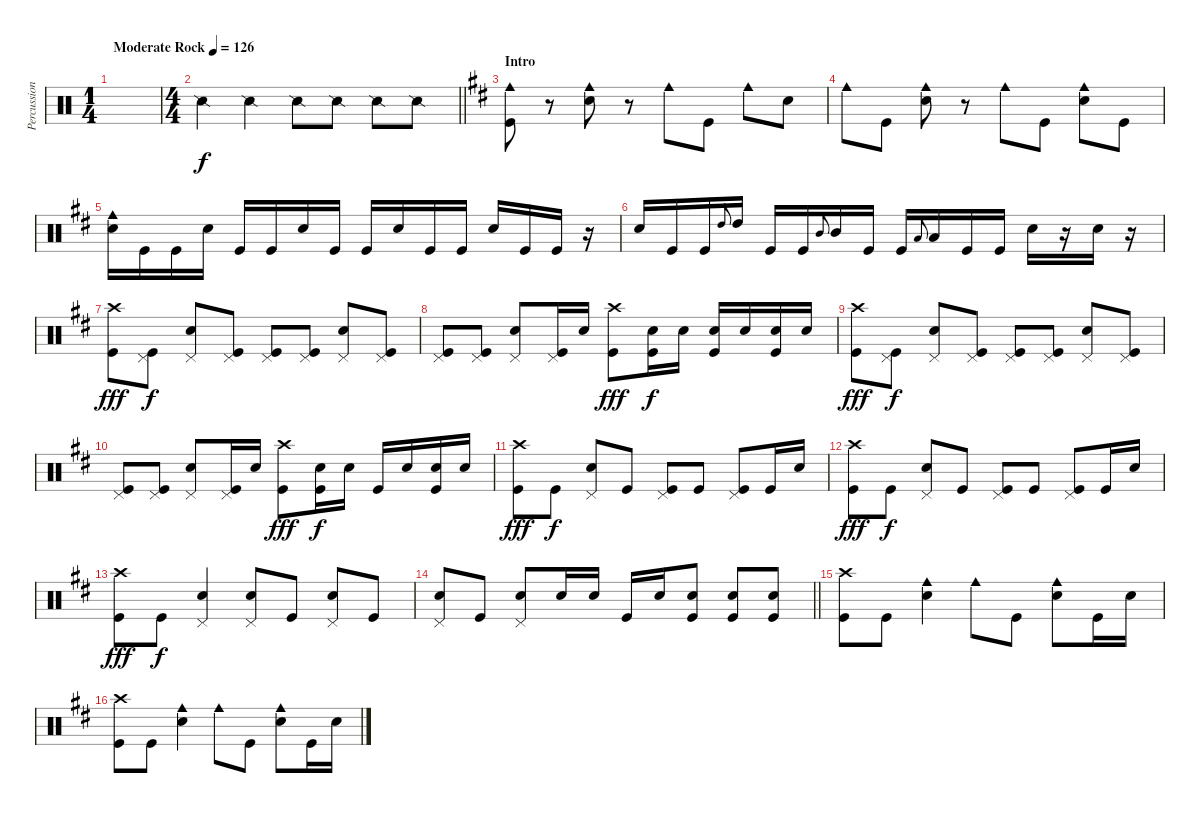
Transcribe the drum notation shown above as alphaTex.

\track ("Percussion" "Percussion") {instrument percussion}
\staff {score}
\articulation defaults
\ts (1 4)
\tempo (126 "Moderate Rock")
\clef neutral
\ks c
|
\ts (4 4)
\barLineRight lightlight "Snare (side stick) 2".4 "Snare (side stick) 2".4 "Snare (side stick) 2".8 "Snare (side stick) 2".8 "Snare (side stick) 2".8 "Snare (side stick) 2".8
|
\section ("" "Intro")
\ks d
("Cowbell medium (hit)" "Kick (hit)").8 r.8 ("Cowbell medium (hit)" "Snare (hit) 2").8 r.8 "Cowbell medium (hit)".8 "Kick (hit)".8 "Cowbell medium (hit)".8 "Snare (hit) 2".8 |
"Cowbell medium (hit)".8 "Kick (hit)".8 ("Cowbell medium (hit)" "Snare (hit) 2").8 r.8 "Cowbell medium (hit)".8 "Kick (hit)".8 ("Cowbell medium (hit)" "Snare (hit) 2").8 "Kick (hit)".8 |
("Cowbell medium (hit)" "Snare (hit) 2").16 "Kick (hit)".16 "Kick (hit)".16 "Snare (hit) 2".16 "Kick (hit)".16 "Kick (hit)".16 "Snare (hit) 2".16 "Kick (hit)".16 "Kick (hit)".16 "Snare (hit) 2".16 "Kick (hit)".16 "Kick (hit)".16 "Snare (hit) 2".16 "Kick (hit)".16 "Kick (hit)".16 r.16 |
"Snare (hit) 2".16 "Kick (hit)".16 "Kick (hit)".16 "High Tom (hit)".8{gr onbeat} "High Tom (hit)".16 "Kick (hit)".16 "Kick (hit)".16 "Mid Tom (hit)".8{gr onbeat} "Mid Tom (hit)".16 "Kick (hit)".16 "Kick (hit)".16 "Low Tom (hit)".8{gr onbeat} "Low Tom (hit)".16 "Kick (hit)".16 "Kick (hit)".16 "Snare (hit) 2".16 r.16 "Snare (hit) 2".16 r.16 |
("Crash high (hit)" "Kick (hit)").8{dy fff} ("Pedal Hi-Hat (hit)" "Kick (hit)").8{dy f} ("Pedal Hi-Hat (hit)" "Snare (hit) 2").8 ("Pedal Hi-Hat (hit)" "Kick (hit)").8 ("Pedal Hi-Hat (hit)" "Kick (hit)").8 ("Pedal Hi-Hat (hit)" "Kick (hit)").8 ("Pedal Hi-Hat (hit)" "Snare (hit) 2").8 ("Pedal Hi-Hat (hit)" "Kick (hit)").8 |
("Pedal Hi-Hat (hit)" "Kick (hit)").8 ("Pedal Hi-Hat (hit)" "Kick (hit)").8 ("Pedal Hi-Hat (hit)" "Snare (hit) 2").8 ("Pedal Hi-Hat (hit)" "Kick (hit)").16 "Snare (hit) 2".16 ("Crash high (hit)" "Kick (hit)").8{dy fff} ("Snare (hit) 2" "Kick (hit)").16{dy f} "Snare (hit) 2".16 ("Snare (hit) 2" "Kick (hit)").16 "Snare (hit) 2".16 ("Snare (hit) 2" "Kick (hit)").16 "Snare (hit) 2".16 |
("Crash high (hit)" "Kick (hit)").8{dy fff} ("Pedal Hi-Hat (hit)" "Kick (hit)").8{dy f} ("Pedal Hi-Hat (hit)" "Snare (hit) 2").8 ("Pedal Hi-Hat (hit)" "Kick (hit)").8 ("Pedal Hi-Hat (hit)" "Kick (hit)").8 ("Pedal Hi-Hat (hit)" "Kick (hit)").8 ("Pedal Hi-Hat (hit)" "Snare (hit) 2").8 ("Pedal Hi-Hat (hit)" "Kick (hit)").8 |
("Pedal Hi-Hat (hit)" "Kick (hit)").8 ("Pedal Hi-Hat (hit)" "Kick (hit)").8 ("Pedal Hi-Hat (hit)" "Snare (hit) 2").8 ("Pedal Hi-Hat (hit)" "Kick (hit)").16 "Snare (hit) 2".16 ("Crash high (hit)" "Kick (hit)").8{dy fff} ("Snare (hit) 2" "Kick (hit)").16{dy f} "Snare (hit) 2".16 "Kick (hit)".16 "Snare (hit) 2".16 ("Snare (hit) 2" "Kick (hit)").16 "Snare (hit) 2".16 |
("Crash high (hit)" "Kick (hit)").8{dy fff} "Kick (hit)".8{dy f} ("Pedal Hi-Hat (hit)" "Snare (hit) 2").8 "Kick (hit)".8 ("Pedal Hi-Hat (hit)" "Kick (hit)").8 "Kick (hit)".8 ("Pedal Hi-Hat (hit)" "Kick (hit)").8 "Kick (hit)".16 "Snare (hit) 2".16 |
("Crash high (hit)" "Kick (hit)").8{dy fff} "Kick (hit)".8{dy f} ("Pedal Hi-Hat (hit)" "Snare (hit) 2").8 "Kick (hit)".8 ("Pedal Hi-Hat (hit)" "Kick (hit)").8 "Kick (hit)".8 ("Pedal Hi-Hat (hit)" "Kick (hit)").8 "Kick (hit)".16 "Snare (hit) 2".16 |
("Crash high (hit)" "Kick (hit)").8{dy fff} "Kick (hit)".8{dy f} ("Pedal Hi-Hat (hit)" "Snare (hit) 2").4 ("Pedal Hi-Hat (hit)" "Snare (hit) 2").8 "Kick (hit)".8 ("Pedal Hi-Hat (hit)" "Snare (hit) 2").8 "Kick (hit)".8 |
\barLineRight lightlight
("Pedal Hi-Hat (hit)" "Snare (hit) 2").8 "Kick (hit)".8 ("Pedal Hi-Hat (hit)" "Snare (hit) 2").8 "Snare (hit) 2".16 "Snare (hit) 2".16 "Kick (hit)".16 "Snare (hit) 2".16 ("Snare (hit) 2" "Kick (hit)").8 ("Snare (hit) 2" "Kick (hit)").8 ("Snare (hit) 2" "Kick (hit)").8 |
("Crash high (hit)" "Kick (hit)").8 "Kick (hit)".8 ("Cowbell medium (hit)" "Snare (hit) 2").4 "Cowbell medium (hit)".8 "Kick (hit)".8 ("Cowbell medium (hit)" "Snare (hit) 2").8 "Kick (hit)".16 "Snare (hit) 2".16 |
("Crash high (hit)" "Kick (hit)").8 "Kick (hit)".8 ("Cowbell medium (hit)" "Snare (hit) 2").4 "Cowbell medium (hit)".8 "Kick (hit)".8 ("Cowbell medium (hit)" "Snare (hit) 2").8 "Kick (hit)".16 "Snare (hit) 2".16
